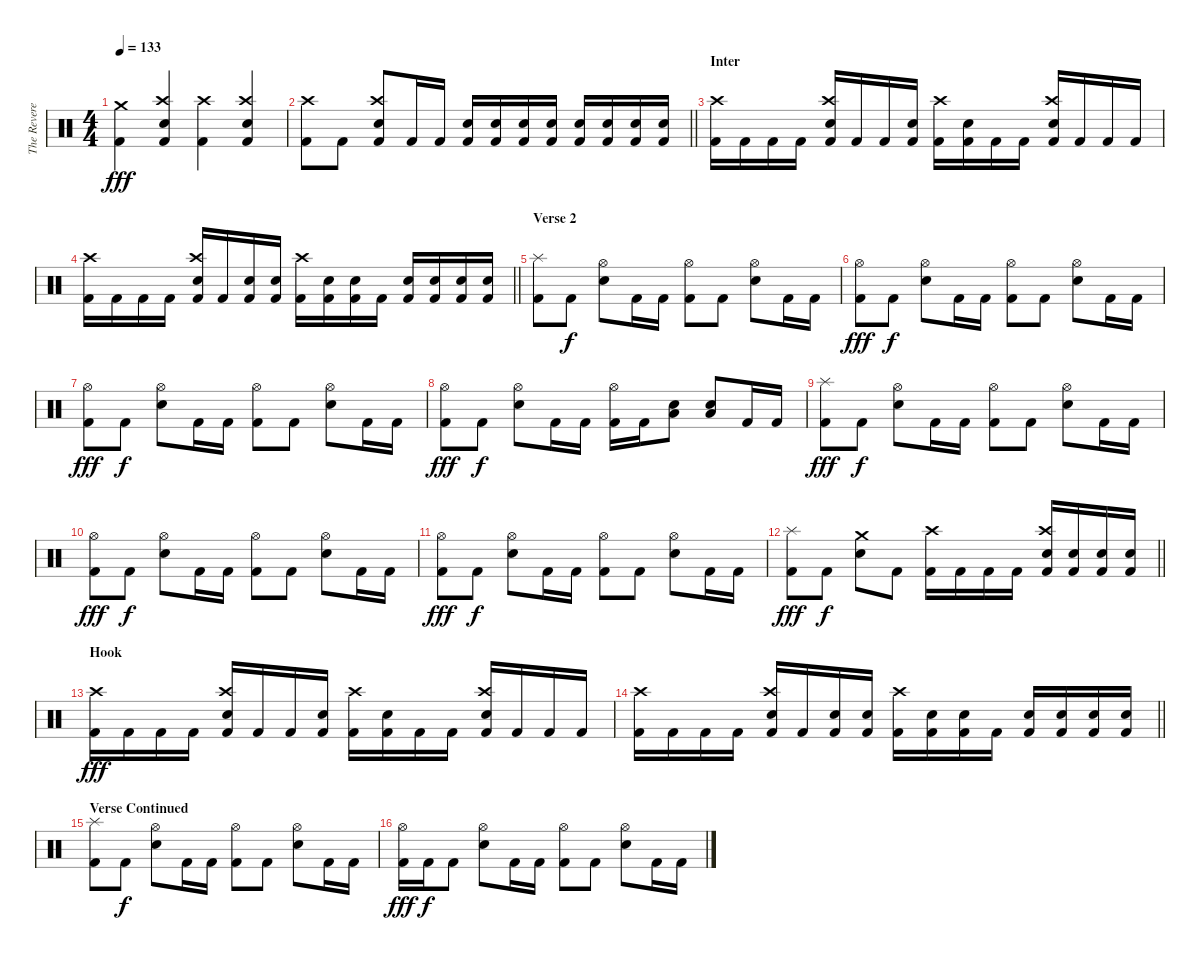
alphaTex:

\track ("The Reverend (R.I.P.) [Drums]" "The Revere") {instrument percussion}
\staff {score}
\articulation defaults
\ts (4 4)
\tempo 133
\clef neutral
\ks c
("Crash medium (hit)" "Kick (hit) 2").4{dy fff} ("Crash high (hit)" "Electric Snare (hit)" "Kick (hit) 2").4 ("Crash high (hit)" "Kick (hit) 2").4 ("Crash high (hit)" "Electric Snare (hit)" "Kick (hit) 2").4 |
\barLineRight lightlight
("Crash high (hit)" "Kick (hit) 2").8 "Kick (hit) 2".8 ("Crash high (hit)" "Electric Snare (hit)" "Kick (hit) 2").8 "Kick (hit) 2".16 "Kick (hit) 2".16 ("Electric Snare (hit)" "Kick (hit) 2").16 ("Electric Snare (hit)" "Kick (hit) 2").16 ("Electric Snare (hit)" "Kick (hit) 2").16 ("Electric Snare (hit)" "Kick (hit) 2").16 ("Electric Snare (hit)" "Kick (hit) 2").16 ("Electric Snare (hit)" "Kick (hit) 2").16 ("Electric Snare (hit)" "Kick (hit) 2").16 ("Electric Snare (hit)" "Kick (hit) 2").16 |
\section ("" "Inter")
("Crash high (hit)" "Kick (hit) 2").16 "Kick (hit) 2".16 "Kick (hit) 2".16 "Kick (hit) 2".16 ("Crash high (hit)" "Electric Snare (hit)" "Kick (hit) 2").16 "Kick (hit) 2".16 "Kick (hit) 2".16 ("Electric Snare (hit)" "Kick (hit) 2").16 ("Crash high (hit)" "Kick (hit) 2").16 ("Electric Snare (hit)" "Kick (hit) 2").16 "Kick (hit) 2".16 "Kick (hit) 2".16 ("Crash high (hit)" "Electric Snare (hit)" "Kick (hit) 2").16 "Kick (hit) 2".16 "Kick (hit) 2".16 "Kick (hit) 2".16 |
\barLineRight lightlight
("Crash high (hit)" "Kick (hit) 2").16 "Kick (hit) 2".16 "Kick (hit) 2".16 "Kick (hit) 2".16 ("Crash high (hit)" "Electric Snare (hit)" "Kick (hit) 2").16 "Kick (hit) 2".16 ("Electric Snare (hit)" "Kick (hit) 2").16 ("Electric Snare (hit)" "Kick (hit) 2").16 ("Crash high (hit)" "Kick (hit) 2").16 ("Electric Snare (hit)" "Kick (hit) 2").16 ("Electric Snare (hit)" "Kick (hit) 2").16 "Kick (hit) 2".16 ("Electric Snare (hit)" "Kick (hit) 2").16 ("Electric Snare (hit)" "Kick (hit) 2").16 ("Electric Snare (hit)" "Kick (hit) 2").16 ("Electric Snare (hit)" "Kick (hit) 2").16 |
\section ("" "Verse 2")
("Splash (hit)" "Kick (hit) 2").8 "Kick (hit) 2".8{dy f} ("Hi-Hat (open)" "Electric Snare (hit)").8 "Kick (hit) 2".16 "Kick (hit) 2".16 ("Hi-Hat (open)" "Kick (hit) 2").8 "Kick (hit) 2".8 ("Hi-Hat (open)" "Electric Snare (hit)").8 "Kick (hit) 2".16 "Kick (hit) 2".16 |
("Hi-Hat (open)" "Kick (hit) 2").8{dy fff} "Kick (hit) 2".8{dy f} ("Hi-Hat (open)" "Electric Snare (hit)").8 "Kick (hit) 2".16 "Kick (hit) 2".16 ("Hi-Hat (open)" "Kick (hit) 2").8 "Kick (hit) 2".8 ("Hi-Hat (open)" "Electric Snare (hit)").8 "Kick (hit) 2".16 "Kick (hit) 2".16 |
("Hi-Hat (open)" "Kick (hit) 2").8{dy fff} "Kick (hit) 2".8{dy f} ("Hi-Hat (open)" "Electric Snare (hit)").8 "Kick (hit) 2".16 "Kick (hit) 2".16 ("Hi-Hat (open)" "Kick (hit) 2").8 "Kick (hit) 2".8 ("Hi-Hat (open)" "Electric Snare (hit)").8 "Kick (hit) 2".16 "Kick (hit) 2".16 |
("Hi-Hat (open)" "Kick (hit) 2").8{dy fff} "Kick (hit) 2".8{dy f} ("Hi-Hat (open)" "Electric Snare (hit)").8 "Kick (hit) 2".16 "Kick (hit) 2".16 ("Hi-Hat (open)" "Kick (hit) 2").16 "Kick (hit) 2".16 ("Low Floor Tom (hit)" "Electric Snare (hit)").8 ("Low Floor Tom (hit)" "Electric Snare (hit)").8 "Kick (hit) 2".16 "Kick (hit) 2".16 |
("Splash (hit)" "Kick (hit) 2").8{dy fff} "Kick (hit) 2".8{dy f} ("Hi-Hat (open)" "Electric Snare (hit)").8 "Kick (hit) 2".16 "Kick (hit) 2".16 ("Hi-Hat (open)" "Kick (hit) 2").8 "Kick (hit) 2".8 ("Hi-Hat (open)" "Electric Snare (hit)").8 "Kick (hit) 2".16 "Kick (hit) 2".16 |
("Hi-Hat (open)" "Kick (hit) 2").8{dy fff} "Kick (hit) 2".8{dy f} ("Hi-Hat (open)" "Electric Snare (hit)").8 "Kick (hit) 2".16 "Kick (hit) 2".16 ("Hi-Hat (open)" "Kick (hit) 2").8 "Kick (hit) 2".8 ("Hi-Hat (open)" "Electric Snare (hit)").8 "Kick (hit) 2".16 "Kick (hit) 2".16 |
("Hi-Hat (open)" "Kick (hit) 2").8{dy fff} "Kick (hit) 2".8{dy f} ("Hi-Hat (open)" "Electric Snare (hit)").8 "Kick (hit) 2".16 "Kick (hit) 2".16 ("Hi-Hat (open)" "Kick (hit) 2").8 "Kick (hit) 2".8 ("Hi-Hat (open)" "Electric Snare (hit)").8 "Kick (hit) 2".16 "Kick (hit) 2".16 |
\barLineRight lightlight
("Splash (hit)" "Kick (hit) 2").8{dy fff} "Kick (hit) 2".8{dy f} ("Crash medium (hit)" "Electric Snare (hit)").8 "Kick (hit) 2".8 ("Crash high (hit)" "Kick (hit) 2").16 "Kick (hit) 2".16 "Kick (hit) 2".16 "Kick (hit) 2".16 ("Crash high (hit)" "Electric Snare (hit)" "Kick (hit) 2").16 ("Electric Snare (hit)" "Kick (hit) 2").16 ("Electric Snare (hit)" "Kick (hit) 2").16 ("Electric Snare (hit)" "Kick (hit) 2").16 |
\section ("" "Hook")
("Crash high (hit)" "Kick (hit) 2").16{dy fff} "Kick (hit) 2".16 "Kick (hit) 2".16 "Kick (hit) 2".16 ("Crash high (hit)" "Electric Snare (hit)" "Kick (hit) 2").16 "Kick (hit) 2".16 "Kick (hit) 2".16 ("Electric Snare (hit)" "Kick (hit) 2").16 ("Crash high (hit)" "Kick (hit) 2").16 ("Electric Snare (hit)" "Kick (hit) 2").16 "Kick (hit) 2".16 "Kick (hit) 2".16 ("Crash high (hit)" "Electric Snare (hit)" "Kick (hit) 2").16 "Kick (hit) 2".16 "Kick (hit) 2".16 "Kick (hit) 2".16 |
\barLineRight lightlight
("Crash high (hit)" "Kick (hit) 2").16 "Kick (hit) 2".16 "Kick (hit) 2".16 "Kick (hit) 2".16 ("Crash high (hit)" "Electric Snare (hit)" "Kick (hit) 2").16 "Kick (hit) 2".16 ("Electric Snare (hit)" "Kick (hit) 2").16 ("Electric Snare (hit)" "Kick (hit) 2").16 ("Crash high (hit)" "Kick (hit) 2").16 ("Electric Snare (hit)" "Kick (hit) 2").16 ("Electric Snare (hit)" "Kick (hit) 2").16 "Kick (hit) 2".16 ("Electric Snare (hit)" "Kick (hit) 2").16 ("Electric Snare (hit)" "Kick (hit) 2").16 ("Electric Snare (hit)" "Kick (hit) 2").16 ("Electric Snare (hit)" "Kick (hit) 2").16 |
\section ("" "Verse Continued")
("Splash (hit)" "Kick (hit) 2").8 "Kick (hit) 2".8{dy f} ("Hi-Hat (open)" "Electric Snare (hit)").8 "Kick (hit) 2".16 "Kick (hit) 2".16 ("Hi-Hat (open)" "Kick (hit) 2").8 "Kick (hit) 2".8 ("Hi-Hat (open)" "Electric Snare (hit)").8 "Kick (hit) 2".16 "Kick (hit) 2".16 |
("Hi-Hat (open)" "Kick (hit) 2").16{dy fff} "Kick (hit) 2".16{dy f} "Kick (hit) 2".8 ("Hi-Hat (open)" "Electric Snare (hit)").8 "Kick (hit) 2".16 "Kick (hit) 2".16 ("Hi-Hat (open)" "Kick (hit) 2").8 "Kick (hit) 2".8 ("Hi-Hat (open)" "Electric Snare (hit)").8 "Kick (hit) 2".16 "Kick (hit) 2".16
